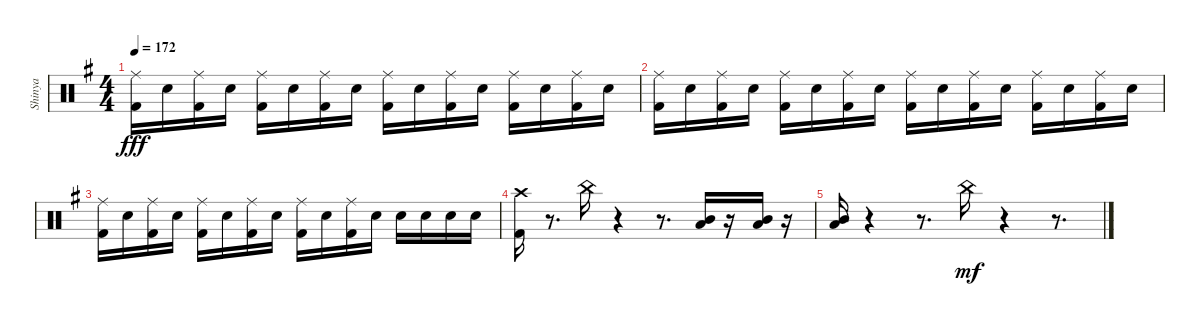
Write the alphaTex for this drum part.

\track ("Shinya" "Shinya") {instrument percussion}
\staff {score}
\articulation defaults
\ts (4 4)
\tempo 172
\clef neutral
\ks eminor
("Kick (hit) 2" "Ride (middle)").16{dy fff} "Snare (hit) 2".16 ("Kick (hit) 2" "Ride (middle)").16 "Snare (hit) 2".16 ("Kick (hit) 2" "Ride (middle)").16 "Snare (hit) 2".16 ("Kick (hit) 2" "Ride (middle)").16 "Snare (hit) 2".16 ("Kick (hit) 2" "Ride (middle)").16 "Snare (hit) 2".16 ("Kick (hit) 2" "Ride (middle)").16 "Snare (hit) 2".16 ("Kick (hit) 2" "Ride (middle)").16 "Snare (hit) 2".16 ("Kick (hit) 2" "Ride (middle)").16 "Snare (hit) 2".16 |
("Kick (hit) 2" "Ride (middle)").16 "Snare (hit) 2".16 ("Kick (hit) 2" "Ride (middle)").16 "Snare (hit) 2".16 ("Kick (hit) 2" "Ride (middle)").16 "Snare (hit) 2".16 ("Kick (hit) 2" "Ride (middle)").16 "Snare (hit) 2".16 ("Kick (hit) 2" "Ride (middle)").16 "Snare (hit) 2".16 ("Kick (hit) 2" "Ride (middle)").16 "Snare (hit) 2".16 ("Kick (hit) 2" "Ride (middle)").16 "Snare (hit) 2".16 ("Kick (hit) 2" "Ride (middle)").16 "Snare (hit) 2".16 |
("Kick (hit) 2" "Ride (middle)").16 "Snare (hit) 2".16 ("Kick (hit) 2" "Ride (middle)").16 "Snare (hit) 2".16 ("Kick (hit) 2" "Ride (middle)").16 "Snare (hit) 2".16 ("Kick (hit) 2" "Ride (middle)").16 "Snare (hit) 2".16 ("Kick (hit) 2" "Ride (middle)").16 "Snare (hit) 2".16 ("Kick (hit) 2" "Ride (middle)").16 "Snare (hit) 2".16 "Snare (hit) 2".16 "Snare (hit) 2".16 "Snare (hit) 2".16 "Snare (hit) 2".16 |
("Kick (hit) 2" "Crash high (hit)").16 r.8{d} "China (hit)".16 r.4 r.8{d} ("Low Tom (hit)" "Mid Tom (hit)").16 r.16 ("Low Tom (hit)" "Mid Tom (hit)").16 r.16 |
("Low Tom (hit)" "Mid Tom (hit)").16 r.4 r.8{d} "China (hit)".16{dy mf} r.4 r.8{d}
